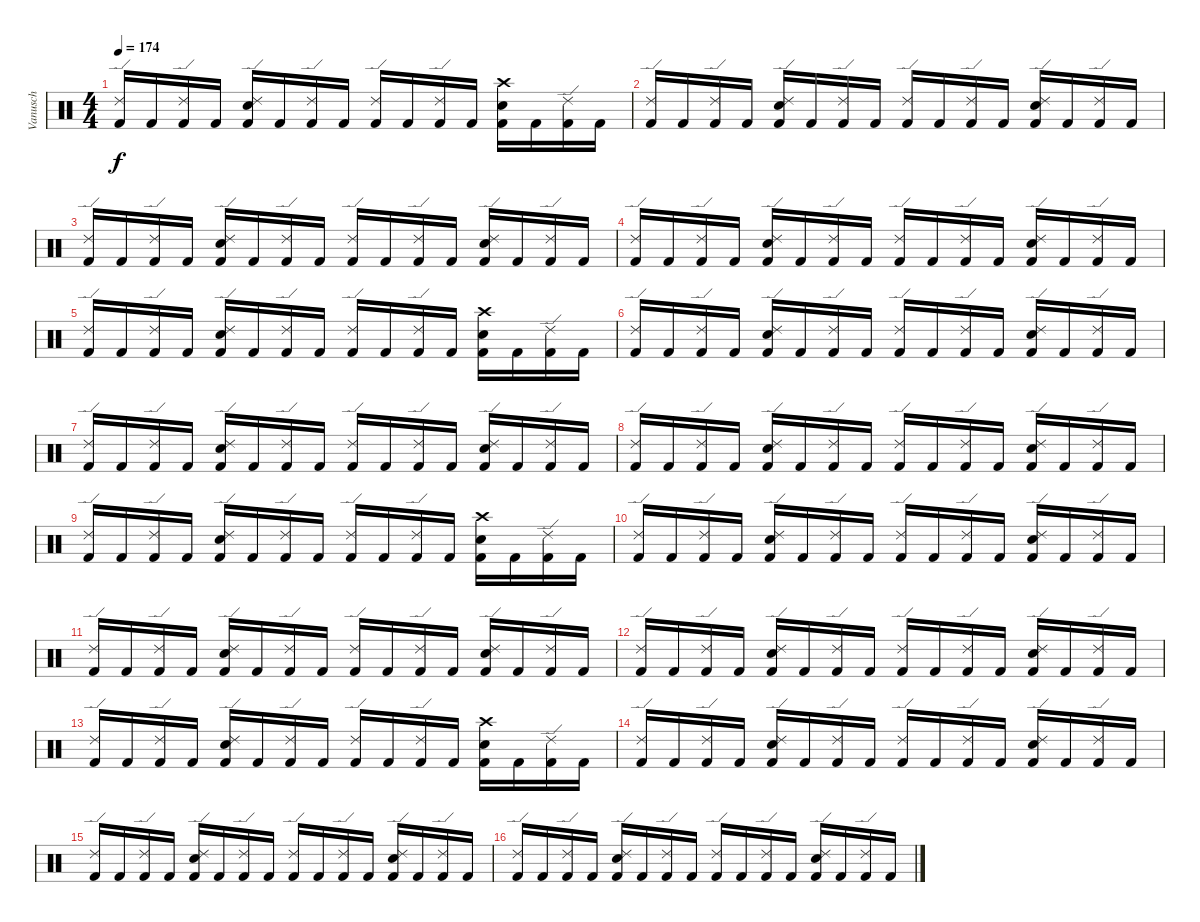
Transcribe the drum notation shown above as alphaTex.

\track ("Vanusch" "Vanusch") {instrument percussion}
\staff {score}
\articulation defaults
\ts (4 4)
\tempo 174
\clef neutral
\ks c
("Ride (edge) 2" "Kick (hit) 2").16{dy f} "Kick (hit) 2".16 ("Ride (edge) 2" "Kick (hit) 2").16 "Kick (hit) 2".16 ("Ride (edge) 2" "Snare (hit) 2" "Kick (hit) 2").16 "Kick (hit) 2".16 ("Ride (edge) 2" "Kick (hit) 2").16 "Kick (hit) 2".16 ("Ride (edge) 2" "Kick (hit) 2").16 "Kick (hit) 2".16 ("Ride (edge) 2" "Kick (hit) 2").16 "Kick (hit) 2".16 ("Crash high (hit)" "Snare (hit) 2" "Kick (hit) 2").16 "Kick (hit) 2".16 ("Ride (edge) 2" "Kick (hit) 2").16 "Kick (hit) 2".16 |
("Ride (edge) 2" "Kick (hit) 2").16 "Kick (hit) 2".16 ("Ride (edge) 2" "Kick (hit) 2").16 "Kick (hit) 2".16 ("Ride (edge) 2" "Snare (hit) 2" "Kick (hit) 2").16 "Kick (hit) 2".16 ("Ride (edge) 2" "Kick (hit) 2").16 "Kick (hit) 2".16 ("Ride (edge) 2" "Kick (hit) 2").16 "Kick (hit) 2".16 ("Ride (edge) 2" "Kick (hit) 2").16 "Kick (hit) 2".16 ("Ride (edge) 2" "Snare (hit) 2" "Kick (hit) 2").16 "Kick (hit) 2".16 ("Ride (edge) 2" "Kick (hit) 2").16 "Kick (hit) 2".16 |
("Ride (edge) 2" "Kick (hit) 2").16 "Kick (hit) 2".16 ("Ride (edge) 2" "Kick (hit) 2").16 "Kick (hit) 2".16 ("Ride (edge) 2" "Snare (hit) 2" "Kick (hit) 2").16 "Kick (hit) 2".16 ("Ride (edge) 2" "Kick (hit) 2").16 "Kick (hit) 2".16 ("Ride (edge) 2" "Kick (hit) 2").16 "Kick (hit) 2".16 ("Ride (edge) 2" "Kick (hit) 2").16 "Kick (hit) 2".16 ("Ride (edge) 2" "Snare (hit) 2" "Kick (hit) 2").16 "Kick (hit) 2".16 ("Ride (edge) 2" "Kick (hit) 2").16 "Kick (hit) 2".16 |
("Ride (edge) 2" "Kick (hit) 2").16 "Kick (hit) 2".16 ("Ride (edge) 2" "Kick (hit) 2").16 "Kick (hit) 2".16 ("Ride (edge) 2" "Snare (hit) 2" "Kick (hit) 2").16 "Kick (hit) 2".16 ("Ride (edge) 2" "Kick (hit) 2").16 "Kick (hit) 2".16 ("Ride (edge) 2" "Kick (hit) 2").16 "Kick (hit) 2".16 ("Ride (edge) 2" "Kick (hit) 2").16 "Kick (hit) 2".16 ("Ride (edge) 2" "Snare (hit) 2" "Kick (hit) 2").16 "Kick (hit) 2".16 ("Ride (edge) 2" "Kick (hit) 2").16 "Kick (hit) 2".16 |
("Ride (edge) 2" "Kick (hit) 2").16 "Kick (hit) 2".16 ("Ride (edge) 2" "Kick (hit) 2").16 "Kick (hit) 2".16 ("Ride (edge) 2" "Snare (hit) 2" "Kick (hit) 2").16 "Kick (hit) 2".16 ("Ride (edge) 2" "Kick (hit) 2").16 "Kick (hit) 2".16 ("Ride (edge) 2" "Kick (hit) 2").16 "Kick (hit) 2".16 ("Ride (edge) 2" "Kick (hit) 2").16 "Kick (hit) 2".16 ("Crash high (hit)" "Snare (hit) 2" "Kick (hit) 2").16 "Kick (hit) 2".16 ("Ride (edge) 2" "Kick (hit) 2").16 "Kick (hit) 2".16 |
("Ride (edge) 2" "Kick (hit) 2").16 "Kick (hit) 2".16 ("Ride (edge) 2" "Kick (hit) 2").16 "Kick (hit) 2".16 ("Ride (edge) 2" "Snare (hit) 2" "Kick (hit) 2").16 "Kick (hit) 2".16 ("Ride (edge) 2" "Kick (hit) 2").16 "Kick (hit) 2".16 ("Ride (edge) 2" "Kick (hit) 2").16 "Kick (hit) 2".16 ("Ride (edge) 2" "Kick (hit) 2").16 "Kick (hit) 2".16 ("Ride (edge) 2" "Snare (hit) 2" "Kick (hit) 2").16 "Kick (hit) 2".16 ("Ride (edge) 2" "Kick (hit) 2").16 "Kick (hit) 2".16 |
("Ride (edge) 2" "Kick (hit) 2").16 "Kick (hit) 2".16 ("Ride (edge) 2" "Kick (hit) 2").16 "Kick (hit) 2".16 ("Ride (edge) 2" "Snare (hit) 2" "Kick (hit) 2").16 "Kick (hit) 2".16 ("Ride (edge) 2" "Kick (hit) 2").16 "Kick (hit) 2".16 ("Ride (edge) 2" "Kick (hit) 2").16 "Kick (hit) 2".16 ("Ride (edge) 2" "Kick (hit) 2").16 "Kick (hit) 2".16 ("Ride (edge) 2" "Snare (hit) 2" "Kick (hit) 2").16 "Kick (hit) 2".16 ("Ride (edge) 2" "Kick (hit) 2").16 "Kick (hit) 2".16 |
("Ride (edge) 2" "Kick (hit) 2").16 "Kick (hit) 2".16 ("Ride (edge) 2" "Kick (hit) 2").16 "Kick (hit) 2".16 ("Ride (edge) 2" "Snare (hit) 2" "Kick (hit) 2").16 "Kick (hit) 2".16 ("Ride (edge) 2" "Kick (hit) 2").16 "Kick (hit) 2".16 ("Ride (edge) 2" "Kick (hit) 2").16 "Kick (hit) 2".16 ("Ride (edge) 2" "Kick (hit) 2").16 "Kick (hit) 2".16 ("Ride (edge) 2" "Snare (hit) 2" "Kick (hit) 2").16 "Kick (hit) 2".16 ("Ride (edge) 2" "Kick (hit) 2").16 "Kick (hit) 2".16 |
("Ride (edge) 2" "Kick (hit) 2").16 "Kick (hit) 2".16 ("Ride (edge) 2" "Kick (hit) 2").16 "Kick (hit) 2".16 ("Ride (edge) 2" "Snare (hit) 2" "Kick (hit) 2").16 "Kick (hit) 2".16 ("Ride (edge) 2" "Kick (hit) 2").16 "Kick (hit) 2".16 ("Ride (edge) 2" "Kick (hit) 2").16 "Kick (hit) 2".16 ("Ride (edge) 2" "Kick (hit) 2").16 "Kick (hit) 2".16 ("Crash high (hit)" "Snare (hit) 2" "Kick (hit) 2").16 "Kick (hit) 2".16 ("Ride (edge) 2" "Kick (hit) 2").16 "Kick (hit) 2".16 |
("Ride (edge) 2" "Kick (hit) 2").16 "Kick (hit) 2".16 ("Ride (edge) 2" "Kick (hit) 2").16 "Kick (hit) 2".16 ("Ride (edge) 2" "Snare (hit) 2" "Kick (hit) 2").16 "Kick (hit) 2".16 ("Ride (edge) 2" "Kick (hit) 2").16 "Kick (hit) 2".16 ("Ride (edge) 2" "Kick (hit) 2").16 "Kick (hit) 2".16 ("Ride (edge) 2" "Kick (hit) 2").16 "Kick (hit) 2".16 ("Ride (edge) 2" "Snare (hit) 2" "Kick (hit) 2").16 "Kick (hit) 2".16 ("Ride (edge) 2" "Kick (hit) 2").16 "Kick (hit) 2".16 |
("Ride (edge) 2" "Kick (hit) 2").16 "Kick (hit) 2".16 ("Ride (edge) 2" "Kick (hit) 2").16 "Kick (hit) 2".16 ("Ride (edge) 2" "Snare (hit) 2" "Kick (hit) 2").16 "Kick (hit) 2".16 ("Ride (edge) 2" "Kick (hit) 2").16 "Kick (hit) 2".16 ("Ride (edge) 2" "Kick (hit) 2").16 "Kick (hit) 2".16 ("Ride (edge) 2" "Kick (hit) 2").16 "Kick (hit) 2".16 ("Ride (edge) 2" "Snare (hit) 2" "Kick (hit) 2").16 "Kick (hit) 2".16 ("Ride (edge) 2" "Kick (hit) 2").16 "Kick (hit) 2".16 |
("Ride (edge) 2" "Kick (hit) 2").16 "Kick (hit) 2".16 ("Ride (edge) 2" "Kick (hit) 2").16 "Kick (hit) 2".16 ("Ride (edge) 2" "Snare (hit) 2" "Kick (hit) 2").16 "Kick (hit) 2".16 ("Ride (edge) 2" "Kick (hit) 2").16 "Kick (hit) 2".16 ("Ride (edge) 2" "Kick (hit) 2").16 "Kick (hit) 2".16 ("Ride (edge) 2" "Kick (hit) 2").16 "Kick (hit) 2".16 ("Ride (edge) 2" "Snare (hit) 2" "Kick (hit) 2").16 "Kick (hit) 2".16 ("Ride (edge) 2" "Kick (hit) 2").16 "Kick (hit) 2".16 |
("Ride (edge) 2" "Kick (hit) 2").16 "Kick (hit) 2".16 ("Ride (edge) 2" "Kick (hit) 2").16 "Kick (hit) 2".16 ("Ride (edge) 2" "Snare (hit) 2" "Kick (hit) 2").16 "Kick (hit) 2".16 ("Ride (edge) 2" "Kick (hit) 2").16 "Kick (hit) 2".16 ("Ride (edge) 2" "Kick (hit) 2").16 "Kick (hit) 2".16 ("Ride (edge) 2" "Kick (hit) 2").16 "Kick (hit) 2".16 ("Crash high (hit)" "Snare (hit) 2" "Kick (hit) 2").16 "Kick (hit) 2".16 ("Ride (edge) 2" "Kick (hit) 2").16 "Kick (hit) 2".16 |
("Ride (edge) 2" "Kick (hit) 2").16 "Kick (hit) 2".16 ("Ride (edge) 2" "Kick (hit) 2").16 "Kick (hit) 2".16 ("Ride (edge) 2" "Snare (hit) 2" "Kick (hit) 2").16 "Kick (hit) 2".16 ("Ride (edge) 2" "Kick (hit) 2").16 "Kick (hit) 2".16 ("Ride (edge) 2" "Kick (hit) 2").16 "Kick (hit) 2".16 ("Ride (edge) 2" "Kick (hit) 2").16 "Kick (hit) 2".16 ("Ride (edge) 2" "Snare (hit) 2" "Kick (hit) 2").16 "Kick (hit) 2".16 ("Ride (edge) 2" "Kick (hit) 2").16 "Kick (hit) 2".16 |
("Ride (edge) 2" "Kick (hit) 2").16 "Kick (hit) 2".16 ("Ride (edge) 2" "Kick (hit) 2").16 "Kick (hit) 2".16 ("Ride (edge) 2" "Snare (hit) 2" "Kick (hit) 2").16 "Kick (hit) 2".16 ("Ride (edge) 2" "Kick (hit) 2").16 "Kick (hit) 2".16 ("Ride (edge) 2" "Kick (hit) 2").16 "Kick (hit) 2".16 ("Ride (edge) 2" "Kick (hit) 2").16 "Kick (hit) 2".16 ("Ride (edge) 2" "Snare (hit) 2" "Kick (hit) 2").16 "Kick (hit) 2".16 ("Ride (edge) 2" "Kick (hit) 2").16 "Kick (hit) 2".16 |
("Ride (edge) 2" "Kick (hit) 2").16 "Kick (hit) 2".16 ("Ride (edge) 2" "Kick (hit) 2").16 "Kick (hit) 2".16 ("Ride (edge) 2" "Snare (hit) 2" "Kick (hit) 2").16 "Kick (hit) 2".16 ("Ride (edge) 2" "Kick (hit) 2").16 "Kick (hit) 2".16 ("Ride (edge) 2" "Kick (hit) 2").16 "Kick (hit) 2".16 ("Ride (edge) 2" "Kick (hit) 2").16 "Kick (hit) 2".16 ("Ride (edge) 2" "Snare (hit) 2" "Kick (hit) 2").16 "Kick (hit) 2".16 ("Ride (edge) 2" "Kick (hit) 2").16 "Kick (hit) 2".16
